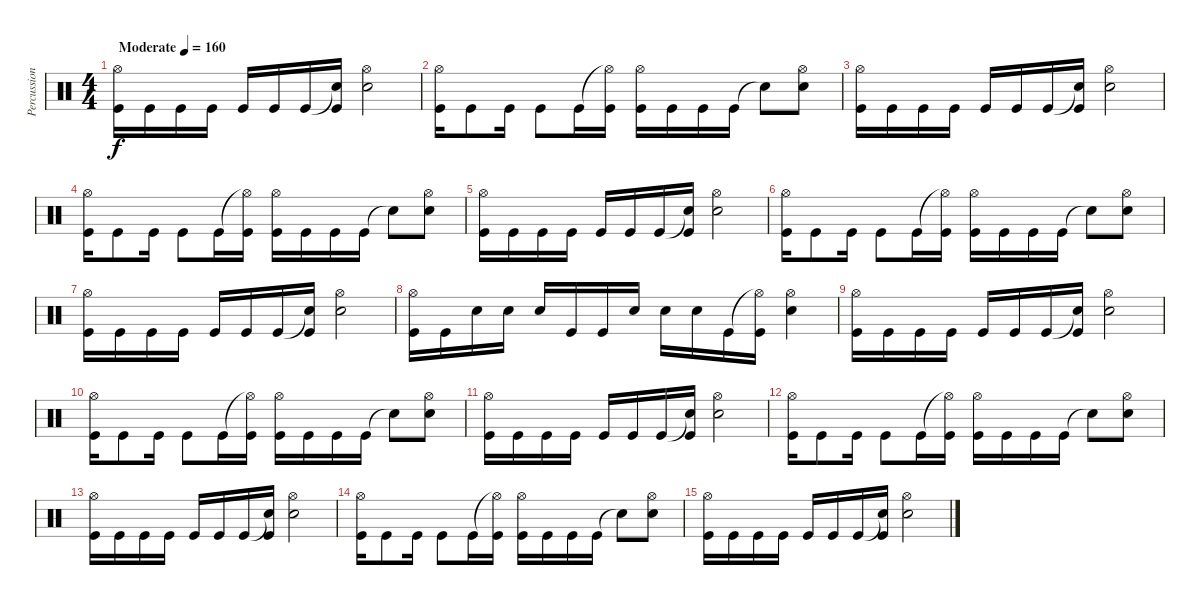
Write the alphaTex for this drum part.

\track ("Percussion" "Percussion") {instrument percussion}
\staff {score}
\articulation defaults
\ts (4 4)
\tempo (160 "Moderate")
\clef neutral
\ks c
("Hi-Hat (open)" "Kick (hit)").16{dy f} "Kick (hit)".16 "Kick (hit)".16 "Kick (hit)".16 "Kick (hit)".16 "Kick (hit)".16 "Kick (hit)".16 ("Snare (hit)"{t} "Kick (hit)").16 ("Hi-Hat (open)" "Electric Snare (hit)").2 |
("Hi-Hat (open)" "Kick (hit)").16 "Kick (hit)".8 "Kick (hit)".16 "Kick (hit)".8 "Kick (hit)".16 ("Hi-Hat (open)"{t} "Kick (hit)").16 ("Hi-Hat (open)" "Kick (hit)").16 "Kick (hit)".16 "Kick (hit)".16 "Kick (hit)".16 "Snare (hit)"{t}.8 ("Hi-Hat (open)" "Electric Snare (hit)").8 |
("Hi-Hat (open)" "Kick (hit)").16 "Kick (hit)".16 "Kick (hit)".16 "Kick (hit)".16 "Kick (hit)".16 "Kick (hit)".16 "Kick (hit)".16 ("Snare (hit)"{t} "Kick (hit)").16 ("Hi-Hat (open)" "Electric Snare (hit)").2 |
("Hi-Hat (open)" "Kick (hit)").16 "Kick (hit)".8 "Kick (hit)".16 "Kick (hit)".8 "Kick (hit)".16 ("Hi-Hat (open)"{t} "Kick (hit)").16 ("Hi-Hat (open)" "Kick (hit)").16 "Kick (hit)".16 "Kick (hit)".16 "Kick (hit)".16 "Snare (hit)"{t}.8 ("Hi-Hat (open)" "Electric Snare (hit)").8 |
("Hi-Hat (open)" "Kick (hit)").16 "Kick (hit)".16 "Kick (hit)".16 "Kick (hit)".16 "Kick (hit)".16 "Kick (hit)".16 "Kick (hit)".16 ("Snare (hit)"{t} "Kick (hit)").16 ("Hi-Hat (open)" "Electric Snare (hit)").2 |
("Hi-Hat (open)" "Kick (hit)").16 "Kick (hit)".8 "Kick (hit)".16 "Kick (hit)".8 "Kick (hit)".16 ("Hi-Hat (open)"{t} "Kick (hit)").16 ("Hi-Hat (open)" "Kick (hit)").16 "Kick (hit)".16 "Kick (hit)".16 "Kick (hit)".16 "Snare (hit)"{t}.8 ("Hi-Hat (open)" "Electric Snare (hit)").8 |
("Hi-Hat (open)" "Kick (hit)").16 "Kick (hit)".16 "Kick (hit)".16 "Kick (hit)".16 "Kick (hit)".16 "Kick (hit)".16 "Kick (hit)".16 ("Snare (hit)"{t} "Kick (hit)").16 ("Hi-Hat (open)" "Electric Snare (hit)").2 |
("Hi-Hat (open)" "Kick (hit)").16 "Kick (hit)".16 "Electric Snare (hit)".16 "Electric Snare (hit)".16 "Electric Snare (hit)".16 "Kick (hit)".16 "Kick (hit)".16 "Electric Snare (hit)".16 "Electric Snare (hit)".16 "Electric Snare (hit)".16 "Kick (hit)".16 ("Hi-Hat (open)"{t} "Kick (hit)").16 ("Hi-Hat (open)" "Electric Snare (hit)").4 |
("Hi-Hat (open)" "Kick (hit)").16 "Kick (hit)".16 "Kick (hit)".16 "Kick (hit)".16 "Kick (hit)".16 "Kick (hit)".16 "Kick (hit)".16 ("Snare (hit)"{t} "Kick (hit)").16 ("Hi-Hat (open)" "Electric Snare (hit)").2 |
("Hi-Hat (open)" "Kick (hit)").16 "Kick (hit)".8 "Kick (hit)".16 "Kick (hit)".8 "Kick (hit)".16 ("Hi-Hat (open)"{t} "Kick (hit)").16 ("Hi-Hat (open)" "Kick (hit)").16 "Kick (hit)".16 "Kick (hit)".16 "Kick (hit)".16 "Snare (hit)"{t}.8 ("Hi-Hat (open)" "Electric Snare (hit)").8 |
("Hi-Hat (open)" "Kick (hit)").16 "Kick (hit)".16 "Kick (hit)".16 "Kick (hit)".16 "Kick (hit)".16 "Kick (hit)".16 "Kick (hit)".16 ("Snare (hit)"{t} "Kick (hit)").16 ("Hi-Hat (open)" "Electric Snare (hit)").2 |
("Hi-Hat (open)" "Kick (hit)").16 "Kick (hit)".8 "Kick (hit)".16 "Kick (hit)".8 "Kick (hit)".16 ("Hi-Hat (open)"{t} "Kick (hit)").16 ("Hi-Hat (open)" "Kick (hit)").16 "Kick (hit)".16 "Kick (hit)".16 "Kick (hit)".16 "Snare (hit)"{t}.8 ("Hi-Hat (open)" "Electric Snare (hit)").8 |
("Hi-Hat (open)" "Kick (hit)").16 "Kick (hit)".16 "Kick (hit)".16 "Kick (hit)".16 "Kick (hit)".16 "Kick (hit)".16 "Kick (hit)".16 ("Snare (hit)"{t} "Kick (hit)").16 ("Hi-Hat (open)" "Electric Snare (hit)").2 |
("Hi-Hat (open)" "Kick (hit)").16 "Kick (hit)".8 "Kick (hit)".16 "Kick (hit)".8 "Kick (hit)".16 ("Hi-Hat (open)"{t} "Kick (hit)").16 ("Hi-Hat (open)" "Kick (hit)").16 "Kick (hit)".16 "Kick (hit)".16 "Kick (hit)".16 "Snare (hit)"{t}.8 ("Hi-Hat (open)" "Electric Snare (hit)").8 |
("Hi-Hat (open)" "Kick (hit)").16 "Kick (hit)".16 "Kick (hit)".16 "Kick (hit)".16 "Kick (hit)".16 "Kick (hit)".16 "Kick (hit)".16 ("Snare (hit)"{t} "Kick (hit)").16 ("Hi-Hat (open)" "Electric Snare (hit)").2
